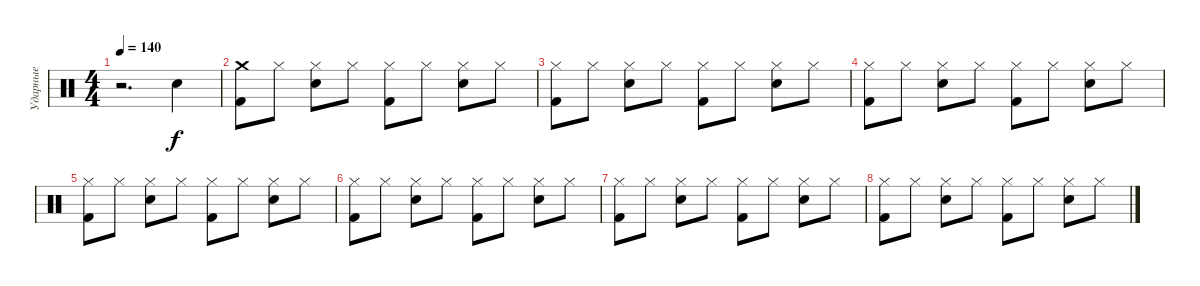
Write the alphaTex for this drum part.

\track ("Ударные" "Ударные") {instrument percussion}
\staff {score}
\articulation defaults
\ts (4 4)
\tempo 140
\clef neutral
\ks c
r.2{d dy f} "Snare (hit) 2".4 |
("Crash medium (hit)" "Kick (hit) 2").8 "Hi-Hat (closed)".8 ("Hi-Hat (closed)" "Snare (hit) 2").8 "Hi-Hat (closed)".8 ("Hi-Hat (closed)" "Kick (hit) 2").8 "Hi-Hat (closed)".8 ("Hi-Hat (closed)" "Snare (hit) 2").8 "Hi-Hat (closed)".8 |
("Hi-Hat (closed)" "Kick (hit) 2").8 "Hi-Hat (closed)".8 ("Hi-Hat (closed)" "Snare (hit) 2").8 "Hi-Hat (closed)".8 ("Hi-Hat (closed)" "Kick (hit) 2").8 "Hi-Hat (closed)".8 ("Hi-Hat (closed)" "Snare (hit) 2").8 "Hi-Hat (closed)".8 |
("Hi-Hat (closed)" "Kick (hit) 2").8 "Hi-Hat (closed)".8 ("Hi-Hat (closed)" "Snare (hit) 2").8 "Hi-Hat (closed)".8 ("Hi-Hat (closed)" "Kick (hit) 2").8 "Hi-Hat (closed)".8 ("Hi-Hat (closed)" "Snare (hit) 2").8 "Hi-Hat (closed)".8 |
("Hi-Hat (closed)" "Kick (hit) 2").8 "Hi-Hat (closed)".8 ("Hi-Hat (closed)" "Snare (hit) 2").8 "Hi-Hat (closed)".8 ("Hi-Hat (closed)" "Kick (hit) 2").8 "Hi-Hat (closed)".8 ("Hi-Hat (closed)" "Snare (hit) 2").8 "Hi-Hat (closed)".8 |
("Hi-Hat (closed)" "Kick (hit) 2").8 "Hi-Hat (closed)".8 ("Hi-Hat (closed)" "Snare (hit) 2").8 "Hi-Hat (closed)".8 ("Hi-Hat (closed)" "Kick (hit) 2").8 "Hi-Hat (closed)".8 ("Hi-Hat (closed)" "Snare (hit) 2").8 "Hi-Hat (closed)".8 |
("Hi-Hat (closed)" "Kick (hit) 2").8 "Hi-Hat (closed)".8 ("Hi-Hat (closed)" "Snare (hit) 2").8 "Hi-Hat (closed)".8 ("Hi-Hat (closed)" "Kick (hit) 2").8 "Hi-Hat (closed)".8 ("Hi-Hat (closed)" "Snare (hit) 2").8 "Hi-Hat (closed)".8 |
("Hi-Hat (closed)" "Kick (hit) 2").8 "Hi-Hat (closed)".8 ("Hi-Hat (closed)" "Snare (hit) 2").8 "Hi-Hat (closed)".8 ("Hi-Hat (closed)" "Kick (hit) 2").8 "Hi-Hat (closed)".8 ("Hi-Hat (closed)" "Snare (hit) 2").8 "Hi-Hat (closed)".8
